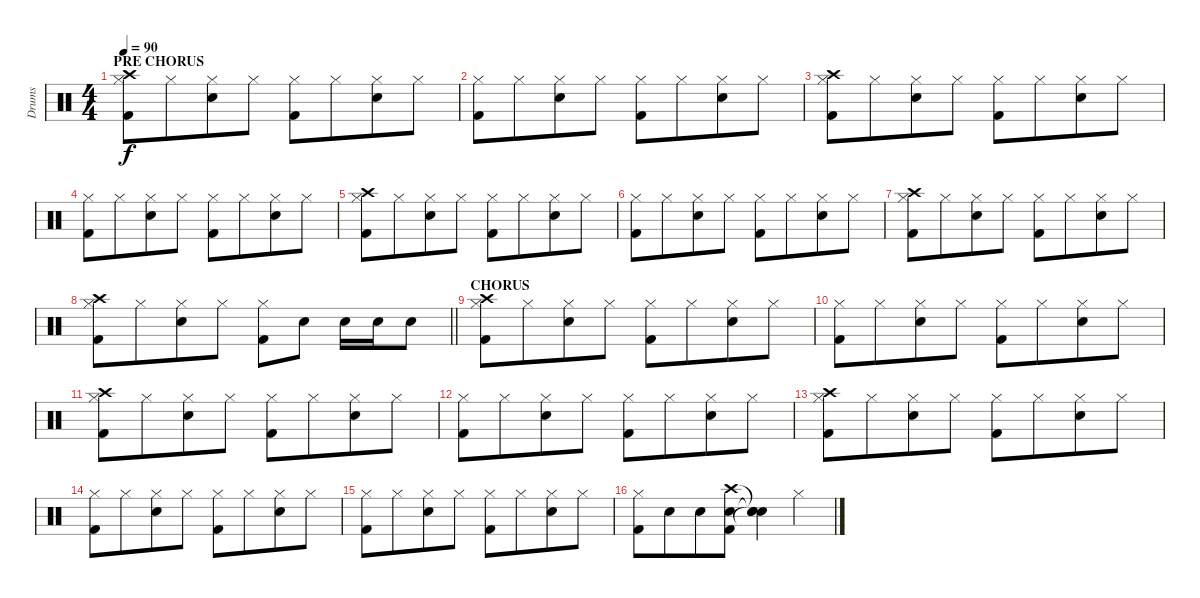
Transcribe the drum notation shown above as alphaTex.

\track ("Drums" "Drums") {instrument percussion}
\staff {score}
\articulation defaults
\ts (4 4)
\section ("" "PRE CHORUS")
\tempo 90
\clef neutral
\ks c
("Crash high (hit)" "Hi-Hat (closed)" "Kick (hit) 2").8{dy f} "Hi-Hat (closed)".8{beam merge} ("Hi-Hat (closed)" "Electric Snare (hit)").8 "Hi-Hat (closed)".8 ("Hi-Hat (closed)" "Kick (hit) 2").8 "Hi-Hat (closed)".8{beam merge} ("Hi-Hat (closed)" "Electric Snare (hit)").8 "Hi-Hat (closed)".8 |
("Hi-Hat (closed)" "Kick (hit) 2").8 "Hi-Hat (closed)".8{beam merge} ("Hi-Hat (closed)" "Electric Snare (hit)").8 "Hi-Hat (closed)".8 ("Hi-Hat (closed)" "Kick (hit) 2").8 "Hi-Hat (closed)".8{beam merge} ("Hi-Hat (closed)" "Electric Snare (hit)").8 "Hi-Hat (closed)".8 |
("Crash high (hit)" "Hi-Hat (closed)" "Kick (hit) 2").8 "Hi-Hat (closed)".8{beam merge} ("Hi-Hat (closed)" "Electric Snare (hit)").8 "Hi-Hat (closed)".8 ("Hi-Hat (closed)" "Kick (hit) 2").8 "Hi-Hat (closed)".8{beam merge} ("Hi-Hat (closed)" "Electric Snare (hit)").8 "Hi-Hat (closed)".8 |
("Hi-Hat (closed)" "Kick (hit) 2").8 "Hi-Hat (closed)".8{beam merge} ("Hi-Hat (closed)" "Electric Snare (hit)").8 "Hi-Hat (closed)".8 ("Hi-Hat (closed)" "Kick (hit) 2").8 "Hi-Hat (closed)".8{beam merge} ("Hi-Hat (closed)" "Electric Snare (hit)").8 "Hi-Hat (closed)".8 |
("Crash high (hit)" "Hi-Hat (closed)" "Kick (hit) 2").8 "Hi-Hat (closed)".8{beam merge} ("Hi-Hat (closed)" "Electric Snare (hit)").8 "Hi-Hat (closed)".8 ("Hi-Hat (closed)" "Kick (hit) 2").8 "Hi-Hat (closed)".8{beam merge} ("Hi-Hat (closed)" "Electric Snare (hit)").8 "Hi-Hat (closed)".8 |
("Hi-Hat (closed)" "Kick (hit) 2").8 "Hi-Hat (closed)".8{beam merge} ("Hi-Hat (closed)" "Electric Snare (hit)").8 "Hi-Hat (closed)".8 ("Hi-Hat (closed)" "Kick (hit) 2").8 "Hi-Hat (closed)".8{beam merge} ("Hi-Hat (closed)" "Electric Snare (hit)").8 "Hi-Hat (closed)".8 |
("Crash high (hit)" "Hi-Hat (closed)" "Kick (hit) 2").8 "Hi-Hat (closed)".8{beam merge} ("Hi-Hat (closed)" "Electric Snare (hit)").8 "Hi-Hat (closed)".8 ("Hi-Hat (closed)" "Kick (hit) 2").8 "Hi-Hat (closed)".8{beam merge} ("Hi-Hat (closed)" "Electric Snare (hit)").8 "Hi-Hat (closed)".8 |
\barLineRight lightlight
("Crash high (hit)" "Hi-Hat (closed)" "Kick (hit) 2").8 "Hi-Hat (closed)".8{beam merge} ("Hi-Hat (closed)" "Electric Snare (hit)").8 "Hi-Hat (closed)".8 ("Hi-Hat (closed)" "Kick (hit) 2").8 "Electric Snare (hit)".8 "Electric Snare (hit)".16 "Electric Snare (hit)".16 "Electric Snare (hit)".8 |
\section ("" "CHORUS")
("Crash high (hit)" "Hi-Hat (closed)" "Kick (hit) 2").8 "Hi-Hat (closed)".8{beam merge} ("Hi-Hat (closed)" "Electric Snare (hit)").8 "Hi-Hat (closed)".8 ("Hi-Hat (closed)" "Kick (hit) 2").8 "Hi-Hat (closed)".8{beam merge} ("Hi-Hat (closed)" "Electric Snare (hit)").8 "Hi-Hat (closed)".8 |
("Hi-Hat (closed)" "Kick (hit) 2").8 "Hi-Hat (closed)".8{beam merge} ("Hi-Hat (closed)" "Electric Snare (hit)").8 "Hi-Hat (closed)".8 ("Hi-Hat (closed)" "Kick (hit) 2").8 "Hi-Hat (closed)".8{beam merge} ("Hi-Hat (closed)" "Electric Snare (hit)").8 "Hi-Hat (closed)".8 |
("Crash high (hit)" "Hi-Hat (closed)" "Kick (hit) 2").8 "Hi-Hat (closed)".8{beam merge} ("Hi-Hat (closed)" "Electric Snare (hit)").8 "Hi-Hat (closed)".8 ("Hi-Hat (closed)" "Kick (hit) 2").8 "Hi-Hat (closed)".8{beam merge} ("Hi-Hat (closed)" "Electric Snare (hit)").8 "Hi-Hat (closed)".8 |
("Hi-Hat (closed)" "Kick (hit) 2").8 "Hi-Hat (closed)".8{beam merge} ("Hi-Hat (closed)" "Electric Snare (hit)").8 "Hi-Hat (closed)".8 ("Hi-Hat (closed)" "Kick (hit) 2").8 "Hi-Hat (closed)".8{beam merge} ("Hi-Hat (closed)" "Electric Snare (hit)").8 "Hi-Hat (closed)".8 |
("Crash high (hit)" "Hi-Hat (closed)" "Kick (hit) 2").8 "Hi-Hat (closed)".8{beam merge} ("Hi-Hat (closed)" "Electric Snare (hit)").8 "Hi-Hat (closed)".8 ("Hi-Hat (closed)" "Kick (hit) 2").8 "Hi-Hat (closed)".8{beam merge} ("Hi-Hat (closed)" "Electric Snare (hit)").8 "Hi-Hat (closed)".8 |
("Hi-Hat (closed)" "Kick (hit) 2").8 "Hi-Hat (closed)".8{beam merge} ("Hi-Hat (closed)" "Electric Snare (hit)").8 "Hi-Hat (closed)".8 ("Hi-Hat (closed)" "Kick (hit) 2").8 "Hi-Hat (closed)".8{beam merge} ("Hi-Hat (closed)" "Electric Snare (hit)").8 "Hi-Hat (closed)".8 |
("Hi-Hat (closed)" "Kick (hit) 2").8 "Hi-Hat (closed)".8{beam merge} ("Hi-Hat (closed)" "Electric Snare (hit)").8 "Hi-Hat (closed)".8 ("Hi-Hat (closed)" "Kick (hit) 2").8 "Hi-Hat (closed)".8{beam merge} ("Hi-Hat (closed)" "Electric Snare (hit)").8 "Hi-Hat (closed)".8 |
("Hi-Hat (closed)" "Kick (hit) 2").8 "Electric Snare (hit)".8{beam merge} "Electric Snare (hit)".8 ("Crash high (hit)" "Electric Snare (hit)" "Kick (hit) 2").8 ("Snare (hit)"{t} "Snare (hit)"{t} "Snare (hit)"{t}).4 "Hi-Hat (closed)".4
